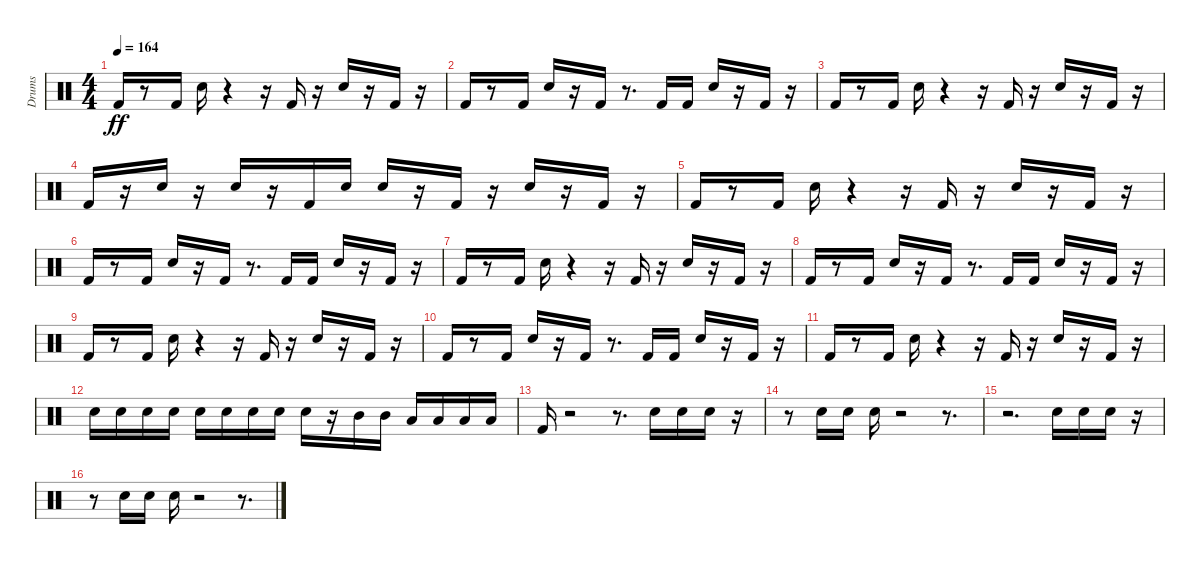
\track ("Drums               " "Drums     ") {instrument percussion}
\staff {score}
\articulation defaults
\ts (4 4)
\tempo 164
\clef neutral
\ks c "Kick (hit) 2".16{dy ff}
r.8 "Kick (hit) 2".16 "Electric Snare (hit)".16 r.4 r.16 "Kick (hit) 2".16 r.16 "Electric Snare (hit)".16 r.16 "Kick (hit) 2".16 r.16 |
"Kick (hit) 2".16 r.8 "Kick (hit) 2".16 "Electric Snare (hit)".16 r.16 "Kick (hit) 2".16 r.8{d} "Kick (hit) 2".16 "Kick (hit) 2".16 "Electric Snare (hit)".16 r.16 "Kick (hit) 2".16 r.16 |
"Kick (hit) 2".16 r.8 "Kick (hit) 2".16 "Electric Snare (hit)".16 r.4 r.16 "Kick (hit) 2".16 r.16 "Electric Snare (hit)".16 r.16 "Kick (hit) 2".16 r.16 |
"Kick (hit) 2".16 r.16 "Electric Snare (hit)".16 r.16 "Electric Snare (hit)".16 r.16 "Kick (hit) 2".16 "Electric Snare (hit)".16 "Electric Snare (hit)".16 r.16 "Kick (hit) 2".16 r.16 "Electric Snare (hit)".16 r.16 "Kick (hit) 2".16 r.16 |
"Kick (hit) 2".16 r.8 "Kick (hit) 2".16 "Electric Snare (hit)".16 r.4 r.16 "Kick (hit) 2".16 r.16 "Electric Snare (hit)".16 r.16 "Kick (hit) 2".16 r.16 |
"Kick (hit) 2".16 r.8 "Kick (hit) 2".16 "Electric Snare (hit)".16 r.16 "Kick (hit) 2".16 r.8{d} "Kick (hit) 2".16 "Kick (hit) 2".16 "Electric Snare (hit)".16 r.16 "Kick (hit) 2".16 r.16 |
"Kick (hit) 2".16 r.8 "Kick (hit) 2".16 "Electric Snare (hit)".16 r.4 r.16 "Kick (hit) 2".16 r.16 "Electric Snare (hit)".16 r.16 "Kick (hit) 2".16 r.16 |
"Kick (hit) 2".16 r.8 "Kick (hit) 2".16 "Electric Snare (hit)".16 r.16 "Kick (hit) 2".16 r.8{d} "Kick (hit) 2".16 "Kick (hit) 2".16 "Electric Snare (hit)".16 r.16 "Kick (hit) 2".16 r.16 |
"Kick (hit) 2".16 r.8 "Kick (hit) 2".16 "Electric Snare (hit)".16 r.4 r.16 "Kick (hit) 2".16 r.16 "Electric Snare (hit)".16 r.16 "Kick (hit) 2".16 r.16 |
"Kick (hit) 2".16 r.8 "Kick (hit) 2".16 "Electric Snare (hit)".16 r.16 "Kick (hit) 2".16 r.8{d} "Kick (hit) 2".16 "Kick (hit) 2".16 "Electric Snare (hit)".16 r.16 "Kick (hit) 2".16 r.16 |
"Kick (hit) 2".16 r.8 "Kick (hit) 2".16 "Electric Snare (hit)".16 r.4 r.16 "Kick (hit) 2".16 r.16 "Electric Snare (hit)".16 r.16 "Kick (hit) 2".16 r.16 |
"Electric Snare (hit)".16 "Electric Snare (hit)".16 "Electric Snare (hit)".16 "Electric Snare (hit)".16 "Electric Snare (hit)".16 "Electric Snare (hit)".16 "Electric Snare (hit)".16 "Electric Snare (hit)".16 "Electric Snare (hit)".16 r.16 "Mid Tom (hit)".16 "Mid Tom (hit)".16 "Low Tom (hit)".16 "Low Tom (hit)".16 "Low Floor Tom (hit)".16 "Low Floor Tom (hit)".16 |
"Kick (hit) 2".16 r.2 r.8{d} "Electric Snare (hit)".16 "Electric Snare (hit)".16 "Electric Snare (hit)".16 r.16 |
r.8 "Electric Snare (hit)".16 "Electric Snare (hit)".16 "Electric Snare (hit)".16 r.2 r.8{d} |
r.2{d} "Electric Snare (hit)".16 "Electric Snare (hit)".16 "Electric Snare (hit)".16 r.16 |
r.8 "Electric Snare (hit)".16 "Electric Snare (hit)".16 "Electric Snare (hit)".16 r.2 r.8{d}
